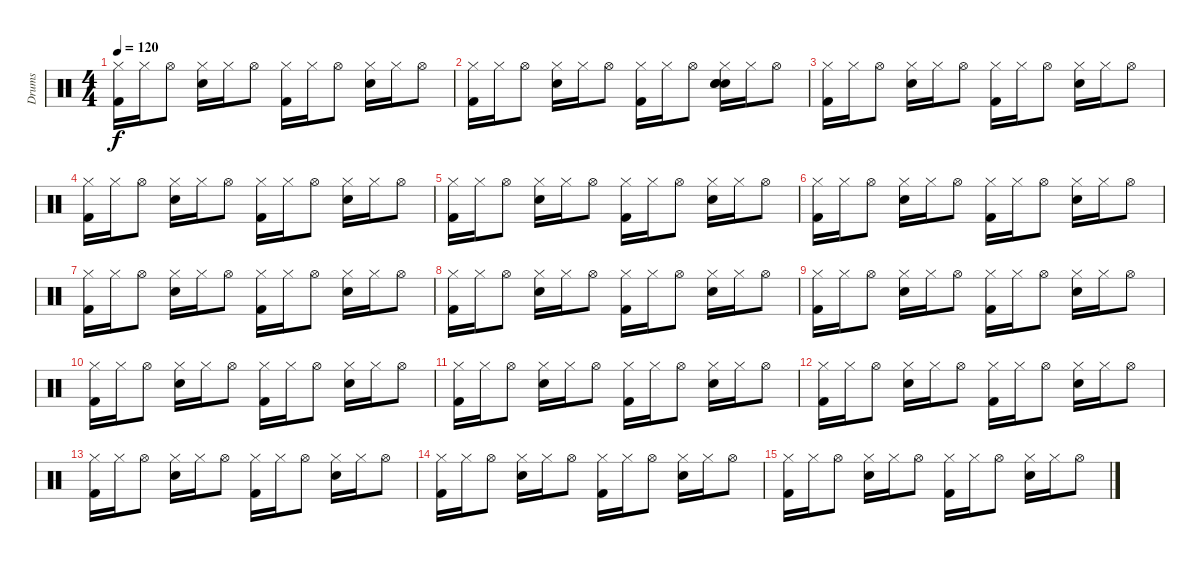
\track ("Drums" "Drums") {instrument percussion}
\staff {score}
\articulation defaults
\ts (4 4)
\tempo 120
\clef neutral
\ks c
("Kick (hit) 2" "Hi-Hat (closed)").16{dy f} "Hi-Hat (closed)".16 "Hi-Hat (open)".8 ("Electric Snare (hit)" "Hi-Hat (closed)").16 "Hi-Hat (closed)".16 "Hi-Hat (open)".8 ("Kick (hit) 2" "Hi-Hat (closed)").16 "Hi-Hat (closed)".16 "Hi-Hat (open)".8 ("Electric Snare (hit)" "Hi-Hat (closed)").16 "Hi-Hat (closed)".16 "Hi-Hat (open)".8 |
("Kick (hit) 2" "Hi-Hat (closed)").16 "Hi-Hat (closed)".16 "Hi-Hat (open)".8 ("Electric Snare (hit)" "Hi-Hat (closed)").16 "Hi-Hat (closed)".16 "Hi-Hat (open)".8 ("Kick (hit) 2" "Hi-Hat (closed)").16 "Hi-Hat (closed)".16 "Hi-Hat (open)".8 ("Hand Clap (hit)" "Electric Snare (hit)" "Hi-Hat (closed)" "Hand Clap (hit)").16 "Hi-Hat (closed)".16 "Hi-Hat (open)".8 |
("Kick (hit) 2" "Hi-Hat (closed)").16 "Hi-Hat (closed)".16 "Hi-Hat (open)".8 ("Electric Snare (hit)" "Hi-Hat (closed)").16 "Hi-Hat (closed)".16 "Hi-Hat (open)".8 ("Kick (hit) 2" "Hi-Hat (closed)").16 "Hi-Hat (closed)".16 "Hi-Hat (open)".8 ("Electric Snare (hit)" "Hi-Hat (closed)").16 "Hi-Hat (closed)".16 "Hi-Hat (open)".8 |
("Kick (hit) 2" "Hi-Hat (closed)").16 "Hi-Hat (closed)".16 "Hi-Hat (open)".8 ("Electric Snare (hit)" "Hi-Hat (closed)").16 "Hi-Hat (closed)".16 "Hi-Hat (open)".8 ("Kick (hit) 2" "Hi-Hat (closed)").16 "Hi-Hat (closed)".16 "Hi-Hat (open)".8 ("Electric Snare (hit)" "Hi-Hat (closed)").16 "Hi-Hat (closed)".16 "Hi-Hat (open)".8 |
("Kick (hit) 2" "Hi-Hat (closed)").16 "Hi-Hat (closed)".16 "Hi-Hat (open)".8 ("Electric Snare (hit)" "Hi-Hat (closed)").16 "Hi-Hat (closed)".16 "Hi-Hat (open)".8 ("Kick (hit) 2" "Hi-Hat (closed)").16 "Hi-Hat (closed)".16 "Hi-Hat (open)".8 ("Electric Snare (hit)" "Hi-Hat (closed)").16 "Hi-Hat (closed)".16 "Hi-Hat (open)".8 |
("Kick (hit) 2" "Hi-Hat (closed)").16 "Hi-Hat (closed)".16 "Hi-Hat (open)".8 ("Electric Snare (hit)" "Hi-Hat (closed)").16 "Hi-Hat (closed)".16 "Hi-Hat (open)".8 ("Kick (hit) 2" "Hi-Hat (closed)").16 "Hi-Hat (closed)".16 "Hi-Hat (open)".8 ("Electric Snare (hit)" "Hi-Hat (closed)").16 "Hi-Hat (closed)".16 "Hi-Hat (open)".8 |
("Kick (hit) 2" "Hi-Hat (closed)").16 "Hi-Hat (closed)".16 "Hi-Hat (open)".8 ("Electric Snare (hit)" "Hi-Hat (closed)").16 "Hi-Hat (closed)".16 "Hi-Hat (open)".8 ("Kick (hit) 2" "Hi-Hat (closed)").16 "Hi-Hat (closed)".16 "Hi-Hat (open)".8 ("Electric Snare (hit)" "Hi-Hat (closed)").16 "Hi-Hat (closed)".16 "Hi-Hat (open)".8 |
("Kick (hit) 2" "Hi-Hat (closed)").16 "Hi-Hat (closed)".16 "Hi-Hat (open)".8 ("Electric Snare (hit)" "Hi-Hat (closed)").16 "Hi-Hat (closed)".16 "Hi-Hat (open)".8 ("Kick (hit) 2" "Hi-Hat (closed)").16 "Hi-Hat (closed)".16 "Hi-Hat (open)".8 ("Electric Snare (hit)" "Hi-Hat (closed)").16 "Hi-Hat (closed)".16 "Hi-Hat (open)".8 |
("Kick (hit) 2" "Hi-Hat (closed)").16 "Hi-Hat (closed)".16 "Hi-Hat (open)".8 ("Electric Snare (hit)" "Hi-Hat (closed)").16 "Hi-Hat (closed)".16 "Hi-Hat (open)".8 ("Kick (hit) 2" "Hi-Hat (closed)").16 "Hi-Hat (closed)".16 "Hi-Hat (open)".8 ("Electric Snare (hit)" "Hi-Hat (closed)").16 "Hi-Hat (closed)".16 "Hi-Hat (open)".8 |
("Kick (hit) 2" "Hi-Hat (closed)").16 "Hi-Hat (closed)".16 "Hi-Hat (open)".8 ("Electric Snare (hit)" "Hi-Hat (closed)").16 "Hi-Hat (closed)".16 "Hi-Hat (open)".8 ("Kick (hit) 2" "Hi-Hat (closed)").16 "Hi-Hat (closed)".16 "Hi-Hat (open)".8 ("Electric Snare (hit)" "Hi-Hat (closed)").16 "Hi-Hat (closed)".16 "Hi-Hat (open)".8 |
("Kick (hit) 2" "Hi-Hat (closed)").16 "Hi-Hat (closed)".16 "Hi-Hat (open)".8 ("Electric Snare (hit)" "Hi-Hat (closed)").16 "Hi-Hat (closed)".16 "Hi-Hat (open)".8 ("Kick (hit) 2" "Hi-Hat (closed)").16 "Hi-Hat (closed)".16 "Hi-Hat (open)".8 ("Electric Snare (hit)" "Hi-Hat (closed)").16 "Hi-Hat (closed)".16 "Hi-Hat (open)".8 |
("Kick (hit) 2" "Hi-Hat (closed)").16 "Hi-Hat (closed)".16 "Hi-Hat (open)".8 ("Electric Snare (hit)" "Hi-Hat (closed)").16 "Hi-Hat (closed)".16 "Hi-Hat (open)".8 ("Kick (hit) 2" "Hi-Hat (closed)").16 "Hi-Hat (closed)".16 "Hi-Hat (open)".8 ("Electric Snare (hit)" "Hi-Hat (closed)").16 "Hi-Hat (closed)".16 "Hi-Hat (open)".8 |
("Kick (hit) 2" "Hi-Hat (closed)").16 "Hi-Hat (closed)".16 "Hi-Hat (open)".8 ("Electric Snare (hit)" "Hi-Hat (closed)").16 "Hi-Hat (closed)".16 "Hi-Hat (open)".8 ("Kick (hit) 2" "Hi-Hat (closed)").16 "Hi-Hat (closed)".16 "Hi-Hat (open)".8 ("Electric Snare (hit)" "Hi-Hat (closed)").16 "Hi-Hat (closed)".16 "Hi-Hat (open)".8 |
("Kick (hit) 2" "Hi-Hat (closed)").16 "Hi-Hat (closed)".16 "Hi-Hat (open)".8 ("Electric Snare (hit)" "Hi-Hat (closed)").16 "Hi-Hat (closed)".16 "Hi-Hat (open)".8 ("Kick (hit) 2" "Hi-Hat (closed)").16 "Hi-Hat (closed)".16 "Hi-Hat (open)".8 ("Electric Snare (hit)" "Hi-Hat (closed)").16 "Hi-Hat (closed)".16 "Hi-Hat (open)".8 |
("Kick (hit) 2" "Hi-Hat (closed)").16 "Hi-Hat (closed)".16 "Hi-Hat (open)".8 ("Electric Snare (hit)" "Hi-Hat (closed)").16 "Hi-Hat (closed)".16 "Hi-Hat (open)".8 ("Kick (hit) 2" "Hi-Hat (closed)").16 "Hi-Hat (closed)".16 "Hi-Hat (open)".8 ("Electric Snare (hit)" "Hi-Hat (closed)").16 "Hi-Hat (closed)".16 "Hi-Hat (open)".8
